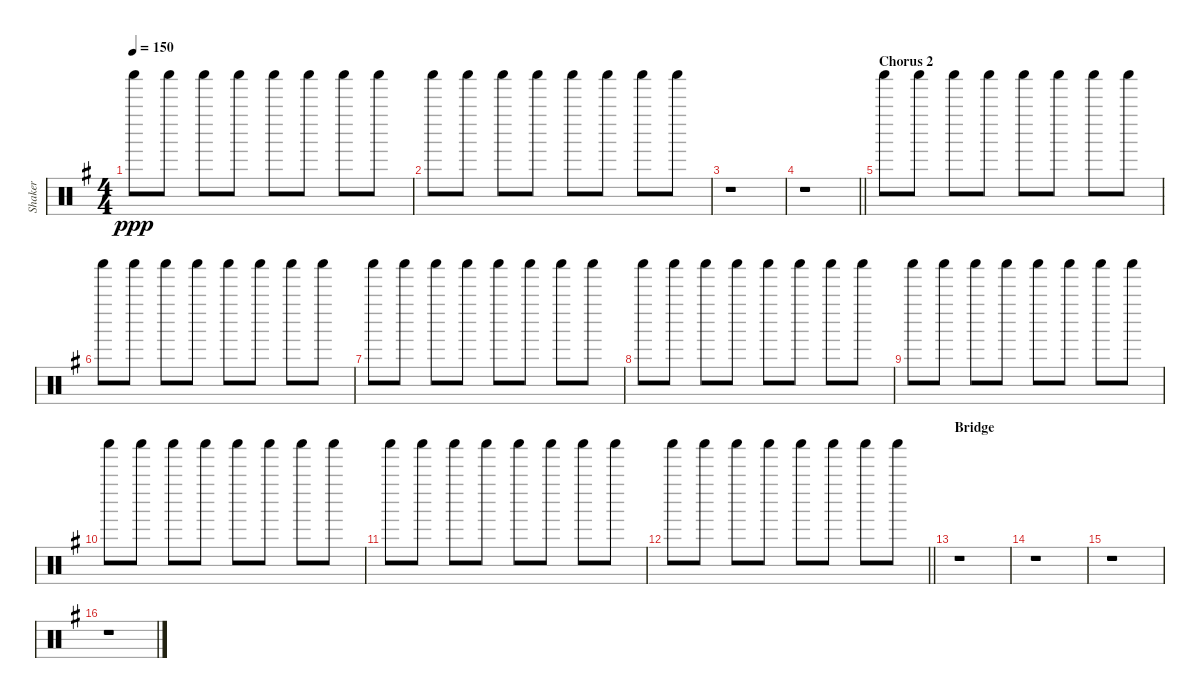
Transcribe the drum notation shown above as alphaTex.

\track ("Shaker" "Shaker") {instrument percussion}
\staff {score}
\articulation defaults
\ts (4 4)
\tempo 150
\clef neutral
\ks g "Shaker (hit)".8{dy ppp} "Shaker (hit)".8 "Shaker (hit)".8 "Shaker (hit)".8 "Shaker (hit)".8 "Shaker (hit)".8 "Shaker (hit)".8 "Shaker (hit)".8
|
"Shaker (hit)".8 "Shaker (hit)".8 "Shaker (hit)".8 "Shaker (hit)".8 "Shaker (hit)".8 "Shaker (hit)".8 "Shaker (hit)".8 "Shaker (hit)".8 |
r.1 |
\barLineRight lightlight
r.1 |
\section ("" "Chorus 2")
"Shaker (hit)".8 "Shaker (hit)".8 "Shaker (hit)".8 "Shaker (hit)".8 "Shaker (hit)".8 "Shaker (hit)".8 "Shaker (hit)".8 "Shaker (hit)".8 |
"Shaker (hit)".8 "Shaker (hit)".8 "Shaker (hit)".8 "Shaker (hit)".8 "Shaker (hit)".8 "Shaker (hit)".8 "Shaker (hit)".8 "Shaker (hit)".8 |
"Shaker (hit)".8 "Shaker (hit)".8 "Shaker (hit)".8 "Shaker (hit)".8 "Shaker (hit)".8 "Shaker (hit)".8 "Shaker (hit)".8 "Shaker (hit)".8 |
"Shaker (hit)".8 "Shaker (hit)".8 "Shaker (hit)".8 "Shaker (hit)".8 "Shaker (hit)".8 "Shaker (hit)".8 "Shaker (hit)".8 "Shaker (hit)".8 |
"Shaker (hit)".8 "Shaker (hit)".8 "Shaker (hit)".8 "Shaker (hit)".8 "Shaker (hit)".8 "Shaker (hit)".8 "Shaker (hit)".8 "Shaker (hit)".8 |
"Shaker (hit)".8 "Shaker (hit)".8 "Shaker (hit)".8 "Shaker (hit)".8 "Shaker (hit)".8 "Shaker (hit)".8 "Shaker (hit)".8 "Shaker (hit)".8 |
"Shaker (hit)".8 "Shaker (hit)".8 "Shaker (hit)".8 "Shaker (hit)".8 "Shaker (hit)".8 "Shaker (hit)".8 "Shaker (hit)".8 "Shaker (hit)".8 |
\barLineRight lightlight "Shaker (hit)".8 "Shaker (hit)".8 "Shaker (hit)".8 "Shaker (hit)".8 "Shaker (hit)".8 "Shaker (hit)".8 "Shaker (hit)".8 "Shaker (hit)".8
|
\section ("" "Bridge")
r.1 |
r.1 |
r.1 |
r.1
